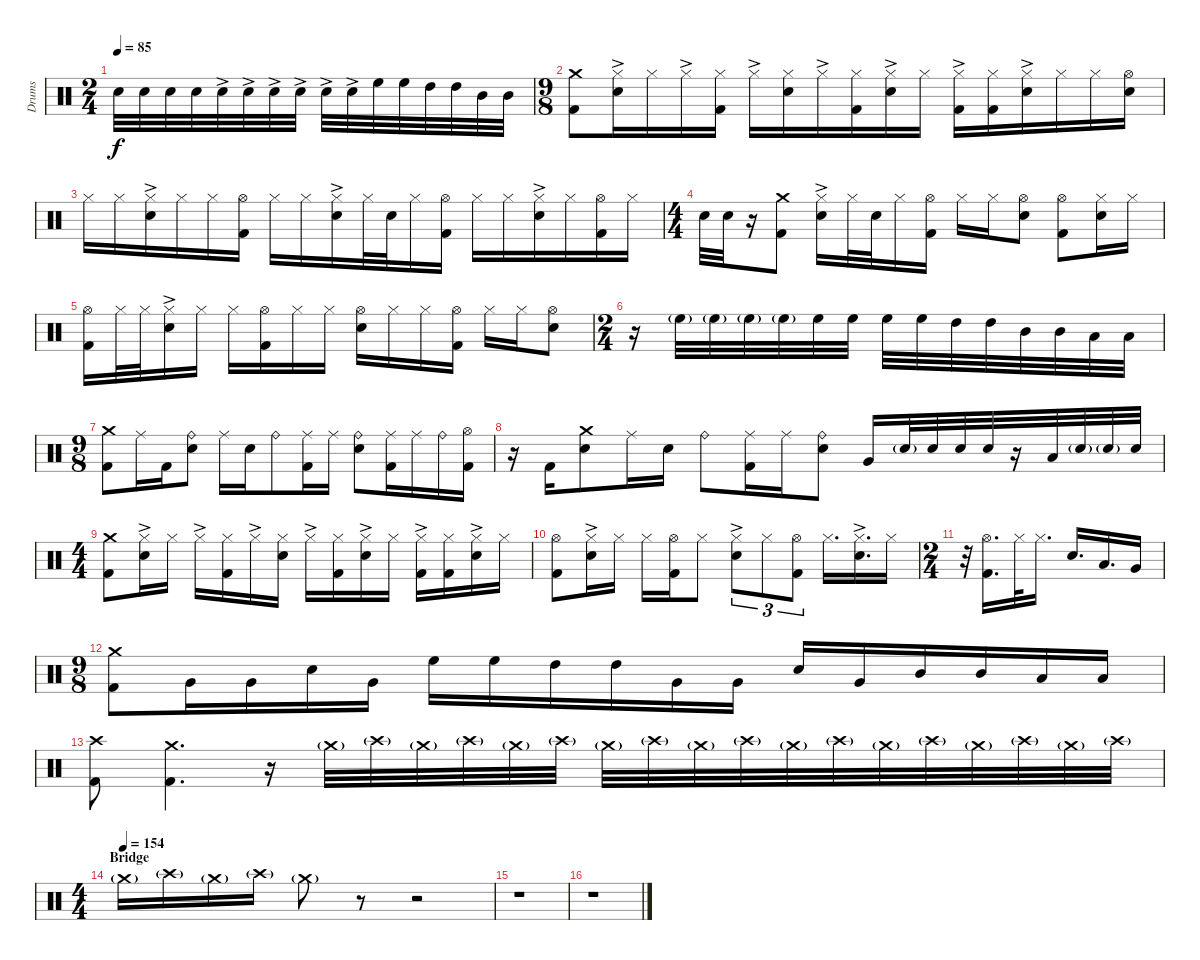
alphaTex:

\track ("Drums" "Drums") {instrument percussion}
\staff {score}
\articulation defaults
\ts (2 4)
\tempo 85
\clef neutral
\ks c "Snare (hit) 2".32{dy f} "Snare (hit) 2".32 "Snare (hit) 2".32 "Snare (hit) 2".32 "Snare (hit) 2"{ac}.32 "Snare (hit) 2"{ac}.32 "Snare (hit) 2"{ac}.32 "Snare (hit) 2"{ac}.32 "Snare (hit) 2"{ac}.32 "Snare (hit) 2"{ac}.32 "High Floor Tom (hit)".32 "High Floor Tom (hit)".32 "High Tom (hit)".32 "High Tom (hit)".32 "Mid Tom (hit)".32 "Mid Tom (hit)".32
|
\ts (9 8)
("Crash medium (hit)" "Kick (hit) 2").8 ("Hi-Hat (closed)"{ac} "Snare (hit) 2").16 "Hi-Hat (closed)".16 "Hi-Hat (closed)"{ac}.16 ("Hi-Hat (closed)" "Kick (hit) 2").16 "Hi-Hat (closed)"{ac}.16 ("Hi-Hat (closed)" "Snare (hit) 2").16 "Hi-Hat (closed)"{ac}.16 ("Hi-Hat (closed)" "Kick (hit) 2").16 ("Hi-Hat (closed)"{ac} "Snare (hit) 2").16 "Hi-Hat (closed)".16 ("Hi-Hat (closed)"{ac} "Kick (hit) 2").16 ("Hi-Hat (closed)" "Kick (hit) 2").16 ("Hi-Hat (closed)"{ac} "Snare (hit) 2").16 "Hi-Hat (closed)".16 "Hi-Hat (closed)".16 ("Hi-Hat (open)" "Snare (hit) 2").16 |
"Hi-Hat (closed)".16 "Hi-Hat (closed)".16 ("Hi-Hat (closed)"{ac} "Snare (hit) 2").16 "Hi-Hat (closed)".16 "Hi-Hat (closed)".16 ("Hi-Hat (open)" "Kick (hit) 2").16 "Hi-Hat (closed)".16 "Hi-Hat (closed)".16 ("Hi-Hat (closed)"{ac} "Snare (hit) 2").16 "Hi-Hat (closed)".32 "Snare (hit) 2".32 "Hi-Hat (closed)".16 ("Hi-Hat (open)" "Kick (hit) 2").16 "Hi-Hat (closed)".16 "Hi-Hat (closed)".16 ("Hi-Hat (closed)"{ac} "Snare (hit) 2").16 "Hi-Hat (closed)".16 ("Hi-Hat (open)" "Kick (hit) 2").16 "Hi-Hat (closed)".16 |
\ts (4 4)
"Snare (hit) 2".32 "Snare (hit) 2".32 r.16 ("Crash medium (hit)" "Kick (hit) 2").8 ("Hi-Hat (closed)"{ac} "Snare (hit) 2").16 "Hi-Hat (closed)".32 "Snare (hit) 2".32 "Hi-Hat (closed)".16 ("Hi-Hat (open)" "Kick (hit) 2").16 "Hi-Hat (closed)".16 "Hi-Hat (closed)".16 ("Hi-Hat (open)" "Snare (hit) 2").8 ("Hi-Hat (open)" "Kick (hit) 2").8 ("Hi-Hat (closed)" "Snare (hit) 2").16 "Hi-Hat (closed)".16 |
("Hi-Hat (open)" "Kick (hit) 2").16 "Hi-Hat (closed)".32 "Hi-Hat (closed)".32 ("Hi-Hat (closed)"{ac} "Snare (hit) 2").16 "Hi-Hat (closed)".16 "Hi-Hat (closed)".16 ("Hi-Hat (open)" "Kick (hit) 2").16 "Hi-Hat (closed)".16 "Hi-Hat (closed)".16 ("Hi-Hat (open)" "Snare (hit) 2").16 "Hi-Hat (closed)".16 "Hi-Hat (closed)".16 ("Hi-Hat (open)" "Kick (hit) 2").16 "Hi-Hat (closed)".16 "Hi-Hat (closed)".16 ("Hi-Hat (open)" "Snare (hit) 2").8 |
\ts (2 4)
r.16 "High Floor Tom (hit)"{g}.32 "High Floor Tom (hit)"{g}.32 "High Floor Tom (hit)"{g}.32 "High Floor Tom (hit)"{g}.32 "High Floor Tom (hit)".32 "High Floor Tom (hit)".32 "High Floor Tom (hit)".32 "High Floor Tom (hit)".32 "High Tom (hit)".32 "High Tom (hit)".32 "Mid Tom (hit)".32 "Mid Tom (hit)".32 "Low Tom (hit)".32 "Low Tom (hit)".32 |
\ts (9 8)
("Crash medium (hit)" "Kick (hit) 2").8 "Ride (middle)".16 "Kick (hit) 2".16 ("Ride (bell)" "Snare (hit) 2").8 "Ride (middle)".16 "Snare (hit) 2".16 "Ride (bell)".8 ("Ride (middle)" "Kick (hit) 2").16 "Ride (middle)".16 ("Ride (bell)" "Snare (hit) 2").8 ("Ride (middle)" "Kick (hit) 2").16 "Ride (middle)".16 "Ride (bell)".16 ("Hi-Hat (open)" "Kick (hit) 2").16 |
r.16 "Kick (hit) 2".16 ("Crash medium (hit)" "Snare (hit) 2").8 "Ride (middle)".16 "Snare (hit) 2".16 "Ride (bell)".8 ("Ride (middle)" "Kick (hit) 2").16 "Ride (middle)".16 ("Ride (bell)" "Snare (hit) 2").8 "Very Low Tom (hit)".16 "Snare (hit) 2"{g}.32 "Snare (hit) 2".32 "Snare (hit) 2".32 "Snare (hit) 2".32 r.16 "Low Tom (hit)".32 "Snare (hit) 2"{g}.32 "Snare (hit) 2"{g}.32 "Snare (hit) 2".32 |
\ts (4 4)
("Crash medium (hit)" "Kick (hit) 2").8 ("Hi-Hat (closed)"{ac} "Snare (hit) 2").16 "Hi-Hat (closed)".16 "Hi-Hat (closed)"{ac}.16 ("Hi-Hat (closed)" "Kick (hit) 2").16 "Hi-Hat (closed)"{ac}.16 ("Hi-Hat (closed)" "Snare (hit) 2").16 "Hi-Hat (closed)"{ac}.16 ("Hi-Hat (closed)" "Kick (hit) 2").16 ("Hi-Hat (closed)"{ac} "Snare (hit) 2").16 "Hi-Hat (closed)".16 ("Hi-Hat (closed)"{ac} "Kick (hit) 2").16 ("Hi-Hat (closed)" "Kick (hit) 2").16 ("Hi-Hat (closed)"{ac} "Snare (hit) 2").16 "Hi-Hat (closed)".16 |
("Hi-Hat (open)" "Kick (hit) 2").8 ("Hi-Hat (closed)"{ac} "Snare (hit) 2").16 "Hi-Hat (closed)".16 "Hi-Hat (closed)".16 ("Hi-Hat (open)" "Kick (hit) 2").16 "Hi-Hat (closed)".8 ("Hi-Hat (closed)"{ac} "Snare (hit) 2").8{tu (3 2)} "Hi-Hat (closed)".8{tu (3 2)} ("Hi-Hat (open)" "Kick (hit) 2").8{tu (3 2)} "Hi-Hat (closed)".16{d} ("Hi-Hat (closed)"{ac} "Snare (hit) 2").16{d} "Hi-Hat (closed)".16 |
\ts (2 4)
r.32 ("Hi-Hat (open)" "Kick (hit) 2").16{d} "Hi-Hat (closed)".32 "Hi-Hat (closed)".16{d} "Snare (hit) 2".16{d} "Low Tom (hit)".16{d} "Very Low Tom (hit)".16 |
\ts (9 8)
("Crash medium (hit)" "Kick (hit) 2").8 "Very Low Tom (hit)".16 "Very Low Tom (hit)".16 "Snare (hit) 2".16 "Very Low Tom (hit)".16 "High Floor Tom (hit)".16 "High Floor Tom (hit)".16 "High Tom (hit)".16 "High Tom (hit)".16 "Very Low Tom (hit)".16 "Very Low Tom (hit)".16 "Snare (hit) 2".16 "Very Low Tom (hit)".16 "Mid Tom (hit)".16 "Mid Tom (hit)".16 "Low Tom (hit)".16 "Low Tom (hit)".16 |
("Crash high (hit)" "Kick (hit) 2").8 ("Crash medium (hit)" "Kick (hit) 2").4{d} r.16 "Crash medium (hit)"{g}.32 "Crash high (hit)"{g}.32 "Crash medium (hit)"{g}.32 "Crash high (hit)"{g}.32 "Crash medium (hit)"{g}.32 "Crash high (hit)"{g}.32 "Crash medium (hit)"{g}.32 "Crash high (hit)"{g}.32 "Crash medium (hit)"{g}.32 "Crash high (hit)"{g}.32 "Crash medium (hit)"{g}.32 "Crash high (hit)"{g}.32 "Crash medium (hit)"{g}.32 "Crash high (hit)"{g}.32 "Crash medium (hit)"{g}.32 "Crash high (hit)"{g}.32 "Crash medium (hit)"{g}.32 "Crash high (hit)"{g}.32 |
\ts (4 4)
\section ("" "Bridge")
\tempo (154)
"Crash medium (hit)"{g}.16 "Crash high (hit)"{g}.16 "Crash medium (hit)"{g}.16 "Crash high (hit)"{g}.16 "Crash medium (hit)"{g}.8 r.8 r.2 |
r.1 |
r.1
